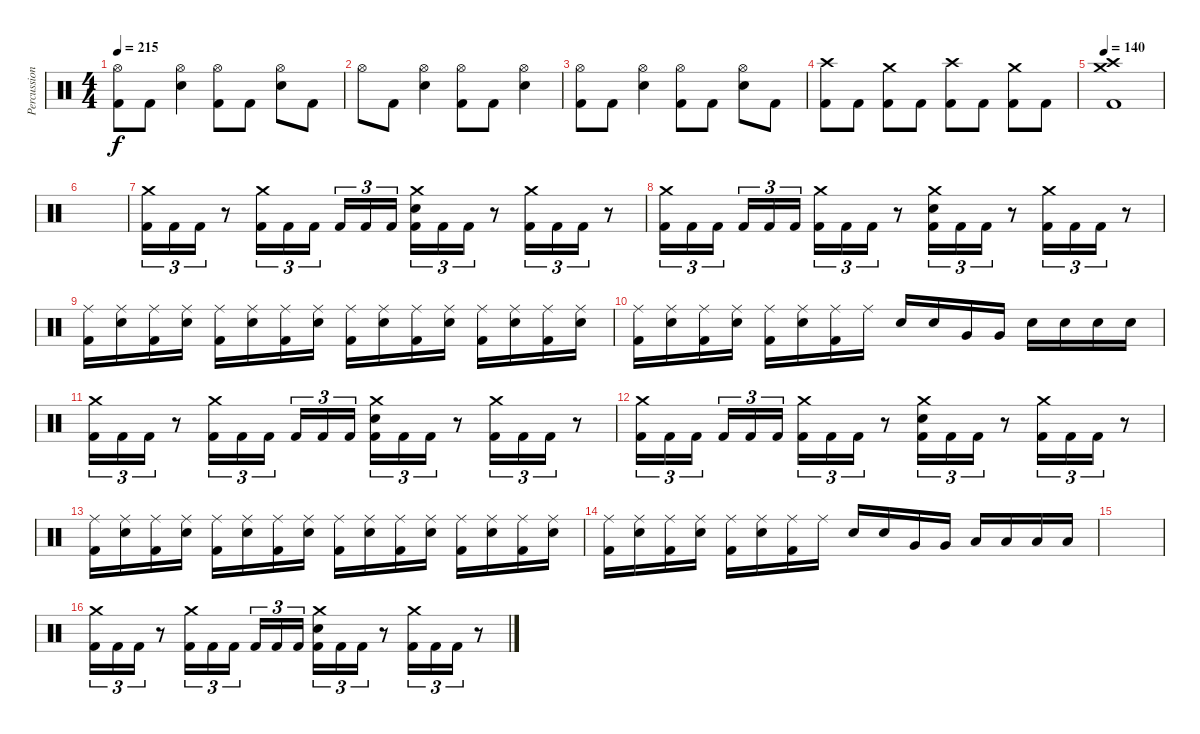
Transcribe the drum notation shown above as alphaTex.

\track ("Percussion" "Percussion") {instrument percussion}
\staff {score}
\articulation defaults
\ts (4 4)
\tempo 215
\clef neutral
\ks c
("Hi-Hat (open)" "Kick (hit) 2").8{dy f} "Kick (hit) 2".8 ("Hi-Hat (open)" "Electric Snare (hit)").4 ("Hi-Hat (open)" "Kick (hit) 2").8 "Kick (hit) 2".8 ("Hi-Hat (open)" "Electric Snare (hit)").8 "Kick (hit) 2".8 |
"Hi-Hat (open)".8 "Kick (hit) 2".8 ("Hi-Hat (open)" "Electric Snare (hit)").4 ("Hi-Hat (open)" "Kick (hit) 2").8 "Kick (hit) 2".8 ("Hi-Hat (open)" "Electric Snare (hit)").4 |
("Hi-Hat (open)" "Kick (hit) 2").8 "Kick (hit) 2".8 ("Hi-Hat (open)" "Electric Snare (hit)").4 ("Hi-Hat (open)" "Kick (hit) 2").8 "Kick (hit) 2".8 ("Hi-Hat (open)" "Electric Snare (hit)").8 "Kick (hit) 2".8 |
("Crash high (hit)" "Kick (hit) 2").8 "Kick (hit) 2".8 ("Crash medium (hit)" "Kick (hit) 2").8 "Kick (hit) 2".8 ("Crash high (hit)" "Kick (hit) 2").8 "Kick (hit) 2".8 ("Crash medium (hit)" "Kick (hit) 2").8 "Kick (hit) 2".8 |
\tempo 140
("Crash medium (hit)" "Crash high (hit)" "Kick (hit) 2").1 |
|
("Crash medium (hit)" "Kick (hit) 2").16{tu (3 2)} "Kick (hit) 2".16{tu (3 2)} "Kick (hit) 2".16{tu (3 2)} r.8 ("Crash medium (hit)" "Kick (hit) 2").16{tu (3 2)} "Kick (hit) 2".16{tu (3 2)} "Kick (hit) 2".16{tu (3 2) beam splitsecondary} "Kick (hit) 2".16{tu (3 2)} "Kick (hit) 2".16{tu (3 2)} "Kick (hit) 2".16{tu (3 2)} ("Crash medium (hit)" "Electric Snare (hit)" "Kick (hit) 2").16{tu (3 2)} "Kick (hit) 2".16{tu (3 2)} "Kick (hit) 2".16{tu (3 2)} r.8 ("Crash medium (hit)" "Kick (hit) 2").16{tu (3 2)} "Kick (hit) 2".16{tu (3 2)} "Kick (hit) 2".16{tu (3 2)} r.8 |
("Crash medium (hit)" "Kick (hit) 2").16{tu (3 2)} "Kick (hit) 2".16{tu (3 2)} "Kick (hit) 2".16{tu (3 2) beam splitsecondary} "Kick (hit) 2".16{tu (3 2)} "Kick (hit) 2".16{tu (3 2)} "Kick (hit) 2".16{tu (3 2)} ("Crash medium (hit)" "Kick (hit) 2").16{tu (3 2)} "Kick (hit) 2".16{tu (3 2)} "Kick (hit) 2".16{tu (3 2)} r.8 ("Crash medium (hit)" "Electric Snare (hit)" "Kick (hit) 2").16{tu (3 2)} "Kick (hit) 2".16{tu (3 2)} "Kick (hit) 2".16{tu (3 2)} r.8 ("Crash medium (hit)" "Kick (hit) 2").16{tu (3 2)} "Kick (hit) 2".16{tu (3 2)} "Kick (hit) 2".16{tu (3 2)} r.8 |
("Ride (middle)" "Kick (hit) 2").16 ("Ride (middle)" "Electric Snare (hit)").16 ("Ride (middle)" "Kick (hit) 2").16 ("Ride (middle)" "Electric Snare (hit)").16 ("Ride (middle)" "Kick (hit) 2").16 ("Ride (middle)" "Electric Snare (hit)").16 ("Ride (middle)" "Kick (hit) 2").16 ("Ride (middle)" "Electric Snare (hit)").16 ("Ride (middle)" "Kick (hit) 2").16 ("Ride (middle)" "Electric Snare (hit)").16 ("Ride (middle)" "Kick (hit) 2").16 ("Ride (middle)" "Electric Snare (hit)").16 ("Ride (middle)" "Kick (hit) 2").16 ("Ride (middle)" "Electric Snare (hit)").16 ("Ride (middle)" "Kick (hit) 2").16 ("Ride (middle)" "Electric Snare (hit)").16 |
("Ride (middle)" "Kick (hit) 2").16 ("Ride (middle)" "Electric Snare (hit)").16 ("Ride (middle)" "Kick (hit) 2").16 ("Ride (middle)" "Electric Snare (hit)").16 ("Ride (middle)" "Kick (hit) 2").16 ("Ride (middle)" "Electric Snare (hit)").16 ("Ride (middle)" "Kick (hit) 2").16 "Ride (middle)".16 "Electric Snare (hit)".16 "Electric Snare (hit)".16 "Very Low Tom (hit)".16 "Very Low Tom (hit)".16 "Electric Snare (hit)".16 "Electric Snare (hit)".16 "Electric Snare (hit)".16 "Electric Snare (hit)".16 |
("Crash medium (hit)" "Kick (hit) 2").16{tu (3 2)} "Kick (hit) 2".16{tu (3 2)} "Kick (hit) 2".16{tu (3 2)} r.8 ("Crash medium (hit)" "Kick (hit) 2").16{tu (3 2)} "Kick (hit) 2".16{tu (3 2)} "Kick (hit) 2".16{tu (3 2) beam splitsecondary} "Kick (hit) 2".16{tu (3 2)} "Kick (hit) 2".16{tu (3 2)} "Kick (hit) 2".16{tu (3 2)} ("Crash medium (hit)" "Electric Snare (hit)" "Kick (hit) 2").16{tu (3 2)} "Kick (hit) 2".16{tu (3 2)} "Kick (hit) 2".16{tu (3 2)} r.8 ("Crash medium (hit)" "Kick (hit) 2").16{tu (3 2)} "Kick (hit) 2".16{tu (3 2)} "Kick (hit) 2".16{tu (3 2)} r.8 |
("Crash medium (hit)" "Kick (hit) 2").16{tu (3 2)} "Kick (hit) 2".16{tu (3 2)} "Kick (hit) 2".16{tu (3 2) beam splitsecondary} "Kick (hit) 2".16{tu (3 2)} "Kick (hit) 2".16{tu (3 2)} "Kick (hit) 2".16{tu (3 2)} ("Crash medium (hit)" "Kick (hit) 2").16{tu (3 2)} "Kick (hit) 2".16{tu (3 2)} "Kick (hit) 2".16{tu (3 2)} r.8 ("Crash medium (hit)" "Electric Snare (hit)" "Kick (hit) 2").16{tu (3 2)} "Kick (hit) 2".16{tu (3 2)} "Kick (hit) 2".16{tu (3 2)} r.8 ("Crash medium (hit)" "Kick (hit) 2").16{tu (3 2)} "Kick (hit) 2".16{tu (3 2)} "Kick (hit) 2".16{tu (3 2)} r.8 |
("Ride (middle)" "Kick (hit) 2").16 ("Ride (middle)" "Electric Snare (hit)").16 ("Ride (middle)" "Kick (hit) 2").16 ("Ride (middle)" "Electric Snare (hit)").16 ("Ride (middle)" "Kick (hit) 2").16 ("Ride (middle)" "Electric Snare (hit)").16 ("Ride (middle)" "Kick (hit) 2").16 ("Ride (middle)" "Electric Snare (hit)").16 ("Ride (middle)" "Kick (hit) 2").16 ("Ride (middle)" "Electric Snare (hit)").16 ("Ride (middle)" "Kick (hit) 2").16 ("Ride (middle)" "Electric Snare (hit)").16 ("Ride (middle)" "Kick (hit) 2").16 ("Ride (middle)" "Electric Snare (hit)").16 ("Ride (middle)" "Kick (hit) 2").16 ("Ride (middle)" "Electric Snare (hit)").16 |
("Ride (middle)" "Kick (hit) 2").16 ("Ride (middle)" "Electric Snare (hit)").16 ("Ride (middle)" "Kick (hit) 2").16 ("Ride (middle)" "Electric Snare (hit)").16 ("Ride (middle)" "Kick (hit) 2").16 ("Ride (middle)" "Electric Snare (hit)").16 ("Ride (middle)" "Kick (hit) 2").16 "Ride (middle)".16 "Electric Snare (hit)".16 "Electric Snare (hit)".16 "Very Low Tom (hit)".16 "Very Low Tom (hit)".16 "Low Floor Tom (hit)".16 "Low Floor Tom (hit)".16 "Low Floor Tom (hit)".16 "Low Floor Tom (hit)".16 |
|
("Crash medium (hit)" "Kick (hit) 2").16{tu (3 2)} "Kick (hit) 2".16{tu (3 2)} "Kick (hit) 2".16{tu (3 2)} r.8 ("Crash medium (hit)" "Kick (hit) 2").16{tu (3 2)} "Kick (hit) 2".16{tu (3 2)} "Kick (hit) 2".16{tu (3 2) beam splitsecondary} "Kick (hit) 2".16{tu (3 2)} "Kick (hit) 2".16{tu (3 2)} "Kick (hit) 2".16{tu (3 2)} ("Crash medium (hit)" "Electric Snare (hit)" "Kick (hit) 2").16{tu (3 2)} "Kick (hit) 2".16{tu (3 2)} "Kick (hit) 2".16{tu (3 2)} r.8 ("Crash medium (hit)" "Kick (hit) 2").16{tu (3 2)} "Kick (hit) 2".16{tu (3 2)} "Kick (hit) 2".16{tu (3 2)} r.8
